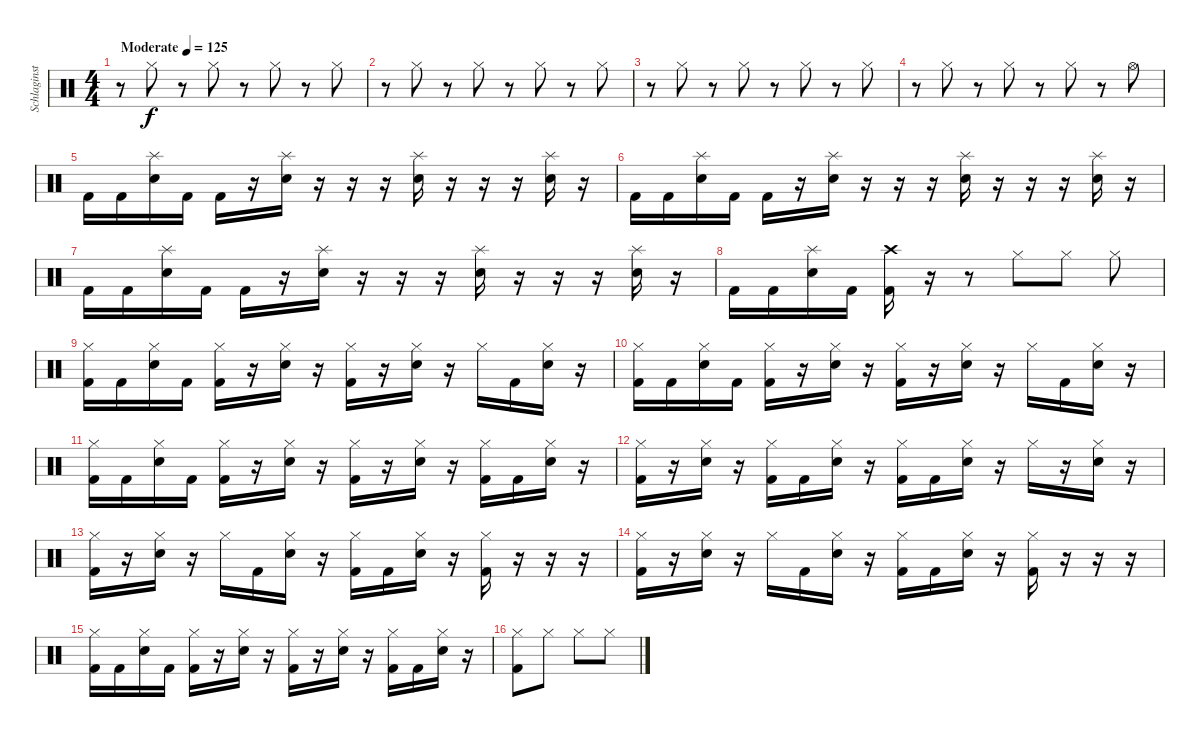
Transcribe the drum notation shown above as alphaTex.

\track ("Schlaginstrumente - Auswahl" "Schlaginst") {instrument percussion}
\staff {score}
\articulation defaults
\ts (4 4)
\tempo (125 "Moderate")
\clef neutral
\ks c
r.8{dy f} "Hi-Hat (closed)".8 r.8 "Hi-Hat (closed)".8 r.8 "Hi-Hat (closed)".8 r.8 "Hi-Hat (closed)".8 |
r.8 "Hi-Hat (closed)".8 r.8 "Hi-Hat (closed)".8 r.8 "Hi-Hat (closed)".8 r.8 "Hi-Hat (closed)".8 |
r.8 "Hi-Hat (closed)".8 r.8 "Hi-Hat (closed)".8 r.8 "Hi-Hat (closed)".8 r.8 "Hi-Hat (closed)".8 |
r.8 "Hi-Hat (closed)".8 r.8 "Hi-Hat (closed)".8 r.8 "Hi-Hat (closed)".8 r.8 "Hi-Hat (open)".8 |
"Kick (hit) 2".16 "Kick (hit) 2".16 ("Splash (hit)" "Electric Snare (hit)").16 "Kick (hit) 2".16 "Kick (hit) 2".16 r.16 ("Splash (hit)" "Electric Snare (hit)").16 r.16 r.16 r.16 ("Splash (hit)" "Electric Snare (hit)").16 r.16 r.16 r.16 ("Splash (hit)" "Electric Snare (hit)").16 r.16 |
"Kick (hit) 2".16 "Kick (hit) 2".16 ("Splash (hit)" "Electric Snare (hit)").16 "Kick (hit) 2".16 "Kick (hit) 2".16 r.16 ("Splash (hit)" "Electric Snare (hit)").16 r.16 r.16 r.16 ("Splash (hit)" "Electric Snare (hit)").16 r.16 r.16 r.16 ("Splash (hit)" "Electric Snare (hit)").16 r.16 |
"Kick (hit) 2".16 "Kick (hit) 2".16 ("Splash (hit)" "Electric Snare (hit)").16 "Kick (hit) 2".16 "Kick (hit) 2".16 r.16 ("Splash (hit)" "Electric Snare (hit)").16 r.16 r.16 r.16 ("Splash (hit)" "Electric Snare (hit)").16 r.16 r.16 r.16 ("Splash (hit)" "Electric Snare (hit)").16 r.16 |
"Kick (hit) 2".16 "Kick (hit) 2".16 ("Splash (hit)" "Electric Snare (hit)").16 "Kick (hit) 2".16 ("Crash high (hit)" "Kick (hit) 2").16 r.16 r.8 "Hi-Hat (closed)".8 "Hi-Hat (closed)".8 "Hi-Hat (closed)".8 |
("Hi-Hat (closed)" "Kick (hit) 2").16 "Kick (hit) 2".16 ("Hi-Hat (closed)" "Electric Snare (hit)").16 "Kick (hit) 2".16 ("Hi-Hat (closed)" "Kick (hit) 2").16 r.16 ("Hi-Hat (closed)" "Electric Snare (hit)").16 r.16 ("Hi-Hat (closed)" "Kick (hit) 2").16 r.16 ("Hi-Hat (closed)" "Electric Snare (hit)").16 r.16 "Hi-Hat (closed)".16 "Kick (hit) 2".16 ("Hi-Hat (closed)" "Electric Snare (hit)").16 r.16 |
("Hi-Hat (closed)" "Kick (hit) 2").16 "Kick (hit) 2".16 ("Hi-Hat (closed)" "Electric Snare (hit)").16 "Kick (hit) 2".16 ("Hi-Hat (closed)" "Kick (hit) 2").16 r.16 ("Hi-Hat (closed)" "Electric Snare (hit)").16 r.16 ("Hi-Hat (closed)" "Kick (hit) 2").16 r.16 ("Hi-Hat (closed)" "Electric Snare (hit)").16 r.16 "Hi-Hat (closed)".16 "Kick (hit) 2".16 ("Hi-Hat (closed)" "Electric Snare (hit)").16 r.16 |
("Hi-Hat (closed)" "Kick (hit) 2").16 "Kick (hit) 2".16 ("Hi-Hat (closed)" "Electric Snare (hit)").16 "Kick (hit) 2".16 ("Hi-Hat (closed)" "Kick (hit) 2").16 r.16 ("Hi-Hat (closed)" "Electric Snare (hit)").16 r.16 ("Hi-Hat (closed)" "Kick (hit) 2").16 r.16 ("Hi-Hat (closed)" "Electric Snare (hit)").16 r.16 ("Hi-Hat (closed)" "Kick (hit) 2").16 "Kick (hit) 2".16 ("Hi-Hat (closed)" "Electric Snare (hit)").16 r.16 |
("Hi-Hat (closed)" "Kick (hit) 2").16 r.16 ("Hi-Hat (closed)" "Electric Snare (hit)").16 r.16 ("Hi-Hat (closed)" "Kick (hit) 2").16 "Kick (hit) 2".16 ("Hi-Hat (closed)" "Electric Snare (hit)").16 r.16 ("Hi-Hat (closed)" "Kick (hit) 2").16 "Kick (hit) 2".16 ("Hi-Hat (closed)" "Electric Snare (hit)").16 r.16 "Hi-Hat (closed)".16 r.16 ("Hi-Hat (closed)" "Electric Snare (hit)").16 r.16 |
("Hi-Hat (closed)" "Kick (hit) 2").16 r.16 ("Hi-Hat (closed)" "Electric Snare (hit)").16 r.16 "Hi-Hat (closed)".16 "Kick (hit) 2".16 ("Hi-Hat (closed)" "Electric Snare (hit)").16 r.16 ("Hi-Hat (closed)" "Kick (hit) 2").16 "Kick (hit) 2".16 ("Hi-Hat (closed)" "Electric Snare (hit)").16 r.16 ("Hi-Hat (closed)" "Kick (hit) 2").16 r.16 r.16 r.16 |
("Hi-Hat (closed)" "Kick (hit) 2").16 r.16 ("Hi-Hat (closed)" "Electric Snare (hit)").16 r.16 "Hi-Hat (closed)".16 "Kick (hit) 2".16 ("Hi-Hat (closed)" "Electric Snare (hit)").16 r.16 ("Hi-Hat (closed)" "Kick (hit) 2").16 "Kick (hit) 2".16 ("Hi-Hat (closed)" "Electric Snare (hit)").16 r.16 ("Hi-Hat (closed)" "Kick (hit) 2").16 r.16 r.16 r.16 |
("Hi-Hat (closed)" "Kick (hit) 2").16 "Kick (hit) 2".16 ("Hi-Hat (closed)" "Electric Snare (hit)").16 "Kick (hit) 2".16 ("Hi-Hat (closed)" "Kick (hit) 2").16 r.16 ("Hi-Hat (closed)" "Electric Snare (hit)").16 r.16 ("Hi-Hat (closed)" "Kick (hit) 2").16 r.16 ("Hi-Hat (closed)" "Electric Snare (hit)").16 r.16 ("Hi-Hat (closed)" "Kick (hit) 2").16 "Kick (hit) 2".16 ("Hi-Hat (closed)" "Electric Snare (hit)").16 r.16 |
("Hi-Hat (closed)" "Kick (hit) 2").8 "Hi-Hat (closed)".8 "Hi-Hat (closed)".8 "Hi-Hat (closed)".8
